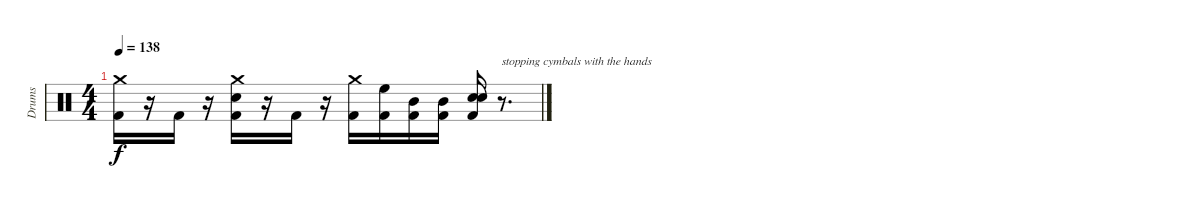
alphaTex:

\track ("Drums" "Drums") {instrument percussion}
\staff {score}
\articulation defaults
\ts (4 4)
\tempo 138
\clef neutral
\ks c
("Crash medium (hit)" "Kick (hit) 2").16{dy f} r.16 "Kick (hit) 2".16 r.16 ("Crash medium (hit)" "Snare (hit) 2" "Kick (hit) 2").16 r.16 "Kick (hit) 2".16 r.16 ("Crash medium (hit)" "Kick (hit) 2").16 ("High Floor Tom (hit)" "Kick (hit) 2").16 ("Mid Tom (hit)" "Kick (hit) 2").16 ("Mid Tom (hit)" "Kick (hit) 2").16 ("Snare (hit) 2" "Snare (hit) 2" "Kick (hit) 2").16 r.8{d txt "stopping cymbals with the hands" volume 0}
